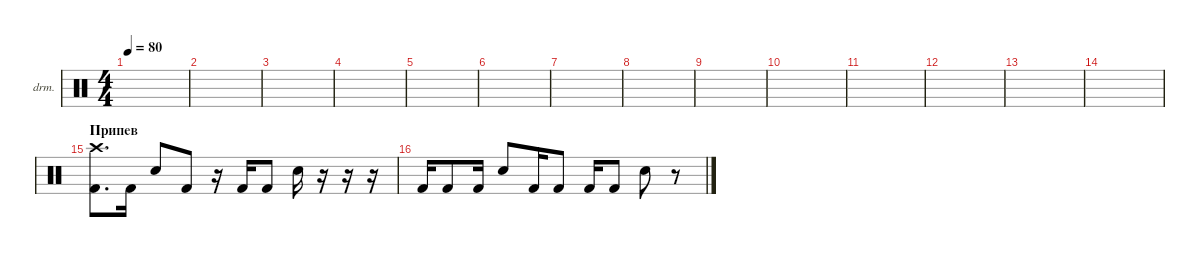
\defaultSystemsLayout 4
\hideDynamics
\bracketExtendMode nobrackets
\firstSystemTrackNameOrientation horizontal
\otherSystemsTrackNameOrientation horizontal
\track ("Drumkit" "drm.") {instrument percussion}
\staff {score}
\articulation defaults
\ts (4 4)
\tempo 80
\clef neutral
\ks c
|
|
|
|
|
|
|
|
|
|
|
|
|
|
\section ("" "Припев")
("Kick (hit) 2" "Crash high (hit)").8{d beam Down} "Kick (hit) 2".16{beam Down} "Snare (hit) 2".8{beam Up} "Kick (hit) 2".8{beam Up} r.16{beam Up} "Kick (hit) 2".16{beam Up} "Kick (hit) 2".8{beam Up} "Snare (hit) 2".16{beam Down} r.16{beam Down} r.16{beam Down} r.16{beam Down} |
"Kick (hit) 2".16{beam Up} "Kick (hit) 2".8{beam Up} "Kick (hit) 2".16{beam Up} "Snare (hit) 2".8{beam Up} "Kick (hit) 2".16{beam Up} "Kick (hit) 2".8{beam Up} "Kick (hit) 2".16{beam Up} "Kick (hit) 2".8{beam Up} "Snare (hit) 2".8{beam Down} r.8{beam Down}
